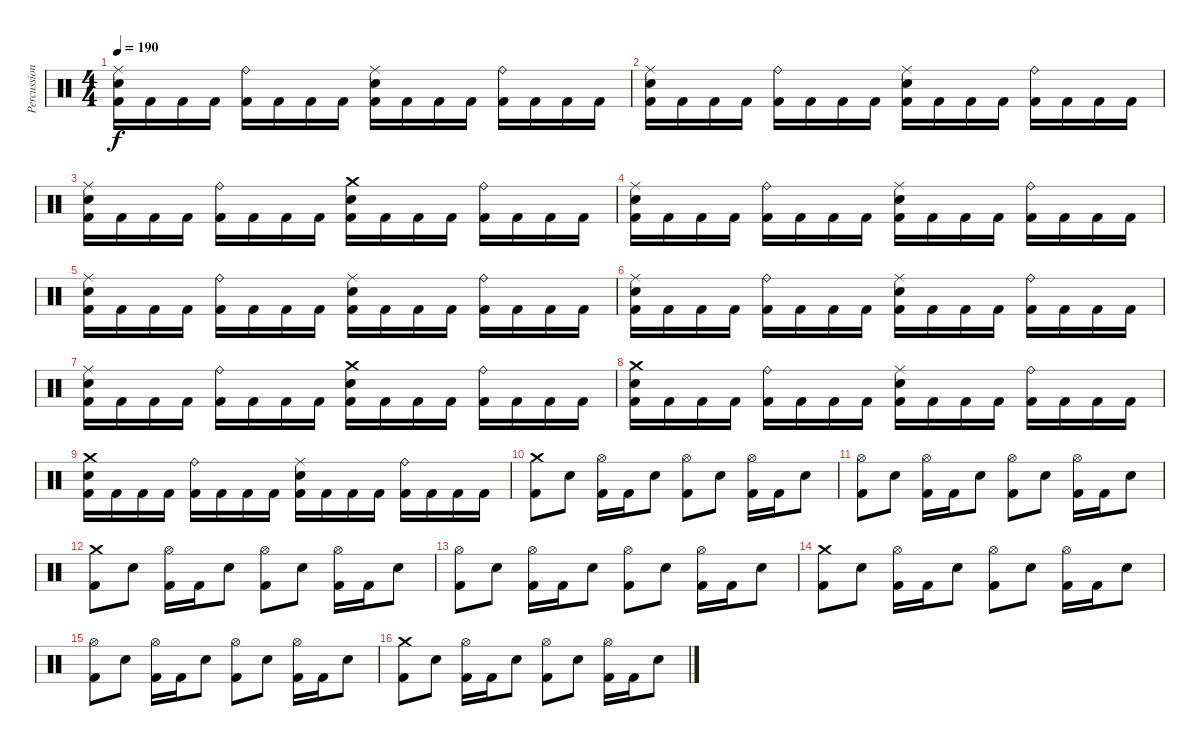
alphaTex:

\track ("Percussion" "Percussion") {instrument percussion}
\staff {score}
\articulation defaults
\ts (4 4)
\tempo 190
\clef neutral
\ks c
("Ride (middle)" "Snare (hit) 2" "Kick (hit) 2").16{dy f} "Kick (hit) 2".16 "Kick (hit) 2".16 "Kick (hit) 2".16 ("Ride (bell)" "Kick (hit) 2").16 "Kick (hit) 2".16 "Kick (hit) 2".16 "Kick (hit) 2".16 ("Ride (middle)" "Snare (hit) 2" "Kick (hit) 2").16 "Kick (hit) 2".16 "Kick (hit) 2".16 "Kick (hit) 2".16 ("Ride (bell)" "Kick (hit) 2").16 "Kick (hit) 2".16 "Kick (hit) 2".16 "Kick (hit) 2".16 |
("Ride (middle)" "Snare (hit) 2" "Kick (hit) 2").16 "Kick (hit) 2".16 "Kick (hit) 2".16 "Kick (hit) 2".16 ("Ride (bell)" "Kick (hit) 2").16 "Kick (hit) 2".16 "Kick (hit) 2".16 "Kick (hit) 2".16 ("Ride (middle)" "Snare (hit) 2" "Kick (hit) 2").16 "Kick (hit) 2".16 "Kick (hit) 2".16 "Kick (hit) 2".16 ("Ride (bell)" "Kick (hit) 2").16 "Kick (hit) 2".16 "Kick (hit) 2".16 "Kick (hit) 2".16 |
("Ride (middle)" "Snare (hit) 2" "Kick (hit) 2").16 "Kick (hit) 2".16 "Kick (hit) 2".16 "Kick (hit) 2".16 ("Ride (bell)" "Kick (hit) 2").16 "Kick (hit) 2".16 "Kick (hit) 2".16 "Kick (hit) 2".16 ("Crash medium (hit)" "Snare (hit) 2" "Kick (hit) 2").16 "Kick (hit) 2".16 "Kick (hit) 2".16 "Kick (hit) 2".16 ("Ride (bell)" "Kick (hit) 2").16 "Kick (hit) 2".16 "Kick (hit) 2".16 "Kick (hit) 2".16 |
("Ride (middle)" "Snare (hit) 2" "Kick (hit) 2").16 "Kick (hit) 2".16 "Kick (hit) 2".16 "Kick (hit) 2".16 ("Ride (bell)" "Kick (hit) 2").16 "Kick (hit) 2".16 "Kick (hit) 2".16 "Kick (hit) 2".16 ("Ride (middle)" "Snare (hit) 2" "Kick (hit) 2").16 "Kick (hit) 2".16 "Kick (hit) 2".16 "Kick (hit) 2".16 ("Ride (bell)" "Kick (hit) 2").16 "Kick (hit) 2".16 "Kick (hit) 2".16 "Kick (hit) 2".16 |
("Ride (middle)" "Snare (hit) 2" "Kick (hit) 2").16 "Kick (hit) 2".16 "Kick (hit) 2".16 "Kick (hit) 2".16 ("Ride (bell)" "Kick (hit) 2").16 "Kick (hit) 2".16 "Kick (hit) 2".16 "Kick (hit) 2".16 ("Ride (middle)" "Snare (hit) 2" "Kick (hit) 2").16 "Kick (hit) 2".16 "Kick (hit) 2".16 "Kick (hit) 2".16 ("Ride (bell)" "Kick (hit) 2").16 "Kick (hit) 2".16 "Kick (hit) 2".16 "Kick (hit) 2".16 |
("Ride (middle)" "Snare (hit) 2" "Kick (hit) 2").16 "Kick (hit) 2".16 "Kick (hit) 2".16 "Kick (hit) 2".16 ("Ride (bell)" "Kick (hit) 2").16 "Kick (hit) 2".16 "Kick (hit) 2".16 "Kick (hit) 2".16 ("Ride (middle)" "Snare (hit) 2" "Kick (hit) 2").16 "Kick (hit) 2".16 "Kick (hit) 2".16 "Kick (hit) 2".16 ("Ride (bell)" "Kick (hit) 2").16 "Kick (hit) 2".16 "Kick (hit) 2".16 "Kick (hit) 2".16 |
("Ride (middle)" "Snare (hit) 2" "Kick (hit) 2").16 "Kick (hit) 2".16 "Kick (hit) 2".16 "Kick (hit) 2".16 ("Ride (bell)" "Kick (hit) 2").16 "Kick (hit) 2".16 "Kick (hit) 2".16 "Kick (hit) 2".16 ("Crash medium (hit)" "Snare (hit) 2" "Kick (hit) 2").16 "Kick (hit) 2".16 "Kick (hit) 2".16 "Kick (hit) 2".16 ("Ride (bell)" "Kick (hit) 2").16 "Kick (hit) 2".16 "Kick (hit) 2".16 "Kick (hit) 2".16 |
("Crash medium (hit)" "Snare (hit) 2" "Kick (hit) 2").16 "Kick (hit) 2".16 "Kick (hit) 2".16 "Kick (hit) 2".16 ("Ride (bell)" "Kick (hit) 2").16 "Kick (hit) 2".16 "Kick (hit) 2".16 "Kick (hit) 2".16 ("Ride (middle)" "Snare (hit) 2" "Kick (hit) 2").16 "Kick (hit) 2".16 "Kick (hit) 2".16 "Kick (hit) 2".16 ("Ride (bell)" "Kick (hit) 2").16 "Kick (hit) 2".16 "Kick (hit) 2".16 "Kick (hit) 2".16 |
("Crash medium (hit)" "Snare (hit) 2" "Kick (hit) 2").16 "Kick (hit) 2".16 "Kick (hit) 2".16 "Kick (hit) 2".16 ("Ride (bell)" "Kick (hit) 2").16 "Kick (hit) 2".16 "Kick (hit) 2".16 "Kick (hit) 2".16 ("Ride (middle)" "Snare (hit) 2" "Kick (hit) 2").16 "Kick (hit) 2".16 "Kick (hit) 2".16 "Kick (hit) 2".16 ("Ride (bell)" "Kick (hit) 2").16 "Kick (hit) 2".16 "Kick (hit) 2".16 "Kick (hit) 2".16 |
("Crash medium (hit)" "Kick (hit) 2").8 "Snare (hit) 2".8 ("Hi-Hat (open)" "Kick (hit) 2").16 "Kick (hit) 2".16 "Snare (hit) 2".8 ("Hi-Hat (open)" "Kick (hit) 2").8 "Snare (hit) 2".8 ("Hi-Hat (open)" "Kick (hit) 2").16 "Kick (hit) 2".16 "Snare (hit) 2".8 |
("Hi-Hat (open)" "Kick (hit) 2").8 "Snare (hit) 2".8 ("Hi-Hat (open)" "Kick (hit) 2").16 "Kick (hit) 2".16 "Snare (hit) 2".8 ("Hi-Hat (open)" "Kick (hit) 2").8 "Snare (hit) 2".8 ("Hi-Hat (open)" "Kick (hit) 2").16 "Kick (hit) 2".16 "Snare (hit) 2".8 |
("Crash medium (hit)" "Kick (hit) 2").8 "Snare (hit) 2".8 ("Hi-Hat (open)" "Kick (hit) 2").16 "Kick (hit) 2".16 "Snare (hit) 2".8 ("Hi-Hat (open)" "Kick (hit) 2").8 "Snare (hit) 2".8 ("Hi-Hat (open)" "Kick (hit) 2").16 "Kick (hit) 2".16 "Snare (hit) 2".8 |
("Hi-Hat (open)" "Kick (hit) 2").8 "Snare (hit) 2".8 ("Hi-Hat (open)" "Kick (hit) 2").16 "Kick (hit) 2".16 "Snare (hit) 2".8 ("Hi-Hat (open)" "Kick (hit) 2").8 "Snare (hit) 2".8 ("Hi-Hat (open)" "Kick (hit) 2").16 "Kick (hit) 2".16 "Snare (hit) 2".8 |
("Crash medium (hit)" "Kick (hit) 2").8 "Snare (hit) 2".8 ("Hi-Hat (open)" "Kick (hit) 2").16 "Kick (hit) 2".16 "Snare (hit) 2".8 ("Hi-Hat (open)" "Kick (hit) 2").8 "Snare (hit) 2".8 ("Hi-Hat (open)" "Kick (hit) 2").16 "Kick (hit) 2".16 "Snare (hit) 2".8 |
("Hi-Hat (open)" "Kick (hit) 2").8 "Snare (hit) 2".8 ("Hi-Hat (open)" "Kick (hit) 2").16 "Kick (hit) 2".16 "Snare (hit) 2".8 ("Hi-Hat (open)" "Kick (hit) 2").8 "Snare (hit) 2".8 ("Hi-Hat (open)" "Kick (hit) 2").16 "Kick (hit) 2".16 "Snare (hit) 2".8 |
("Crash medium (hit)" "Kick (hit) 2").8 "Snare (hit) 2".8 ("Hi-Hat (open)" "Kick (hit) 2").16 "Kick (hit) 2".16 "Snare (hit) 2".8 ("Hi-Hat (open)" "Kick (hit) 2").8 "Snare (hit) 2".8 ("Hi-Hat (open)" "Kick (hit) 2").16 "Kick (hit) 2".16 "Snare (hit) 2".8
